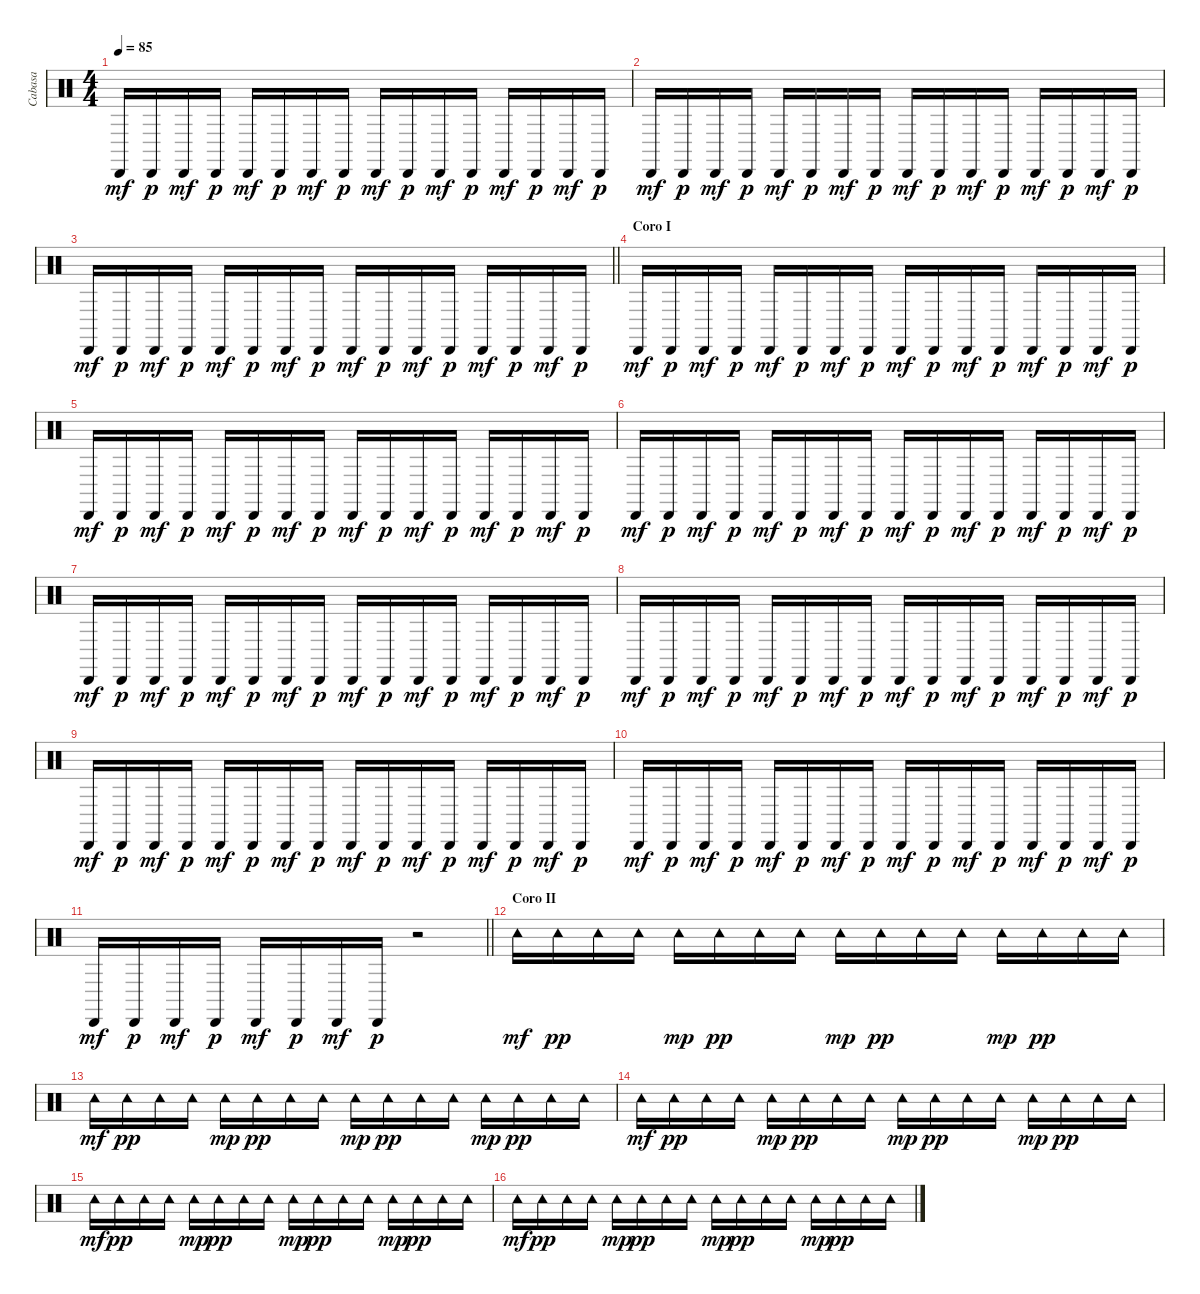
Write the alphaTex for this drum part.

\track ("Cabasa" "Cabasa") {instrument percussion}
\staff {score}
\articulation defaults
\ts (4 4)
\tempo 85
\clef neutral
\ks c "Cabasa (hit)".16{dy mf} "Cabasa (hit)".16{dy p} "Cabasa (hit)".16{dy mf} "Cabasa (hit)".16{dy p} "Cabasa (hit)".16{dy mf} "Cabasa (hit)".16{dy p} "Cabasa (hit)".16{dy mf} "Cabasa (hit)".16{dy p} "Cabasa (hit)".16{dy mf} "Cabasa (hit)".16{dy p} "Cabasa (hit)".16{dy mf} "Cabasa (hit)".16{dy p} "Cabasa (hit)".16{dy mf} "Cabasa (hit)".16{dy p} "Cabasa (hit)".16{dy mf} "Cabasa (hit)".16{dy p}
|
"Cabasa (hit)".16{dy mf} "Cabasa (hit)".16{dy p} "Cabasa (hit)".16{dy mf} "Cabasa (hit)".16{dy p} "Cabasa (hit)".16{dy mf} "Cabasa (hit)".16{dy p} "Cabasa (hit)".16{dy mf} "Cabasa (hit)".16{dy p} "Cabasa (hit)".16{dy mf} "Cabasa (hit)".16{dy p} "Cabasa (hit)".16{dy mf} "Cabasa (hit)".16{dy p} "Cabasa (hit)".16{dy mf} "Cabasa (hit)".16{dy p} "Cabasa (hit)".16{dy mf} "Cabasa (hit)".16{dy p} |
\barLineRight lightlight "Cabasa (hit)".16{dy mf} "Cabasa (hit)".16{dy p} "Cabasa (hit)".16{dy mf} "Cabasa (hit)".16{dy p} "Cabasa (hit)".16{dy mf} "Cabasa (hit)".16{dy p} "Cabasa (hit)".16{dy mf} "Cabasa (hit)".16{dy p} "Cabasa (hit)".16{dy mf} "Cabasa (hit)".16{dy p} "Cabasa (hit)".16{dy mf} "Cabasa (hit)".16{dy p} "Cabasa (hit)".16{dy mf} "Cabasa (hit)".16{dy p} "Cabasa (hit)".16{dy mf} "Cabasa (hit)".16{dy p}
|
\section ("" "Coro I")
"Cabasa (hit)".16{dy mf} "Cabasa (hit)".16{dy p} "Cabasa (hit)".16{dy mf} "Cabasa (hit)".16{dy p} "Cabasa (hit)".16{dy mf} "Cabasa (hit)".16{dy p} "Cabasa (hit)".16{dy mf} "Cabasa (hit)".16{dy p} "Cabasa (hit)".16{dy mf} "Cabasa (hit)".16{dy p} "Cabasa (hit)".16{dy mf} "Cabasa (hit)".16{dy p} "Cabasa (hit)".16{dy mf} "Cabasa (hit)".16{dy p} "Cabasa (hit)".16{dy mf} "Cabasa (hit)".16{dy p} |
"Cabasa (hit)".16{dy mf} "Cabasa (hit)".16{dy p} "Cabasa (hit)".16{dy mf} "Cabasa (hit)".16{dy p} "Cabasa (hit)".16{dy mf} "Cabasa (hit)".16{dy p} "Cabasa (hit)".16{dy mf} "Cabasa (hit)".16{dy p} "Cabasa (hit)".16{dy mf} "Cabasa (hit)".16{dy p} "Cabasa (hit)".16{dy mf} "Cabasa (hit)".16{dy p} "Cabasa (hit)".16{dy mf} "Cabasa (hit)".16{dy p} "Cabasa (hit)".16{dy mf} "Cabasa (hit)".16{dy p} |
"Cabasa (hit)".16{dy mf} "Cabasa (hit)".16{dy p} "Cabasa (hit)".16{dy mf} "Cabasa (hit)".16{dy p} "Cabasa (hit)".16{dy mf} "Cabasa (hit)".16{dy p} "Cabasa (hit)".16{dy mf} "Cabasa (hit)".16{dy p} "Cabasa (hit)".16{dy mf} "Cabasa (hit)".16{dy p} "Cabasa (hit)".16{dy mf} "Cabasa (hit)".16{dy p} "Cabasa (hit)".16{dy mf} "Cabasa (hit)".16{dy p} "Cabasa (hit)".16{dy mf} "Cabasa (hit)".16{dy p} |
"Cabasa (hit)".16{dy mf} "Cabasa (hit)".16{dy p} "Cabasa (hit)".16{dy mf} "Cabasa (hit)".16{dy p} "Cabasa (hit)".16{dy mf} "Cabasa (hit)".16{dy p} "Cabasa (hit)".16{dy mf} "Cabasa (hit)".16{dy p} "Cabasa (hit)".16{dy mf} "Cabasa (hit)".16{dy p} "Cabasa (hit)".16{dy mf} "Cabasa (hit)".16{dy p} "Cabasa (hit)".16{dy mf} "Cabasa (hit)".16{dy p} "Cabasa (hit)".16{dy mf} "Cabasa (hit)".16{dy p} |
"Cabasa (hit)".16{dy mf} "Cabasa (hit)".16{dy p} "Cabasa (hit)".16{dy mf} "Cabasa (hit)".16{dy p} "Cabasa (hit)".16{dy mf} "Cabasa (hit)".16{dy p} "Cabasa (hit)".16{dy mf} "Cabasa (hit)".16{dy p} "Cabasa (hit)".16{dy mf} "Cabasa (hit)".16{dy p} "Cabasa (hit)".16{dy mf} "Cabasa (hit)".16{dy p} "Cabasa (hit)".16{dy mf} "Cabasa (hit)".16{dy p} "Cabasa (hit)".16{dy mf} "Cabasa (hit)".16{dy p} |
"Cabasa (hit)".16{dy mf} "Cabasa (hit)".16{dy p} "Cabasa (hit)".16{dy mf} "Cabasa (hit)".16{dy p} "Cabasa (hit)".16{dy mf} "Cabasa (hit)".16{dy p} "Cabasa (hit)".16{dy mf} "Cabasa (hit)".16{dy p} "Cabasa (hit)".16{dy mf} "Cabasa (hit)".16{dy p} "Cabasa (hit)".16{dy mf} "Cabasa (hit)".16{dy p} "Cabasa (hit)".16{dy mf} "Cabasa (hit)".16{dy p} "Cabasa (hit)".16{dy mf} "Cabasa (hit)".16{dy p} |
"Cabasa (hit)".16{dy mf} "Cabasa (hit)".16{dy p} "Cabasa (hit)".16{dy mf} "Cabasa (hit)".16{dy p} "Cabasa (hit)".16{dy mf} "Cabasa (hit)".16{dy p} "Cabasa (hit)".16{dy mf} "Cabasa (hit)".16{dy p} "Cabasa (hit)".16{dy mf} "Cabasa (hit)".16{dy p} "Cabasa (hit)".16{dy mf} "Cabasa (hit)".16{dy p} "Cabasa (hit)".16{dy mf} "Cabasa (hit)".16{dy p} "Cabasa (hit)".16{dy mf} "Cabasa (hit)".16{dy p} |
\barLineRight lightlight "Cabasa (hit)".16{dy mf} "Cabasa (hit)".16{dy p} "Cabasa (hit)".16{dy mf} "Cabasa (hit)".16{dy p} "Cabasa (hit)".16{dy mf} "Cabasa (hit)".16{dy p} "Cabasa (hit)".16{dy mf} "Cabasa (hit)".16{dy p}
r.2 |
\section ("" "Coro II")
"Tambourine (hit)".16{dy mf} "Tambourine (hit)".16{dy pp} "Tambourine (hit)".16 "Tambourine (hit)".16 "Tambourine (hit)".16{dy mp} "Tambourine (hit)".16{dy pp} "Tambourine (hit)".16 "Tambourine (hit)".16 "Tambourine (hit)".16{dy mp} "Tambourine (hit)".16{dy pp} "Tambourine (hit)".16 "Tambourine (hit)".16 "Tambourine (hit)".16{dy mp} "Tambourine (hit)".16{dy pp} "Tambourine (hit)".16 "Tambourine (hit)".16 |
"Tambourine (hit)".16{dy mf} "Tambourine (hit)".16{dy pp} "Tambourine (hit)".16 "Tambourine (hit)".16 "Tambourine (hit)".16{dy mp} "Tambourine (hit)".16{dy pp} "Tambourine (hit)".16 "Tambourine (hit)".16 "Tambourine (hit)".16{dy mp} "Tambourine (hit)".16{dy pp} "Tambourine (hit)".16 "Tambourine (hit)".16 "Tambourine (hit)".16{dy mp} "Tambourine (hit)".16{dy pp} "Tambourine (hit)".16 "Tambourine (hit)".16 |
"Tambourine (hit)".16{dy mf} "Tambourine (hit)".16{dy pp} "Tambourine (hit)".16 "Tambourine (hit)".16 "Tambourine (hit)".16{dy mp} "Tambourine (hit)".16{dy pp} "Tambourine (hit)".16 "Tambourine (hit)".16 "Tambourine (hit)".16{dy mp} "Tambourine (hit)".16{dy pp} "Tambourine (hit)".16 "Tambourine (hit)".16 "Tambourine (hit)".16{dy mp} "Tambourine (hit)".16{dy pp} "Tambourine (hit)".16 "Tambourine (hit)".16 |
"Tambourine (hit)".16{dy mf} "Tambourine (hit)".16{dy pp} "Tambourine (hit)".16 "Tambourine (hit)".16 "Tambourine (hit)".16{dy mp} "Tambourine (hit)".16{dy pp} "Tambourine (hit)".16 "Tambourine (hit)".16 "Tambourine (hit)".16{dy mp} "Tambourine (hit)".16{dy pp} "Tambourine (hit)".16 "Tambourine (hit)".16 "Tambourine (hit)".16{dy mp} "Tambourine (hit)".16{dy pp} "Tambourine (hit)".16 "Tambourine (hit)".16 |
"Tambourine (hit)".16{dy mf} "Tambourine (hit)".16{dy pp} "Tambourine (hit)".16 "Tambourine (hit)".16 "Tambourine (hit)".16{dy mp} "Tambourine (hit)".16{dy pp} "Tambourine (hit)".16 "Tambourine (hit)".16 "Tambourine (hit)".16{dy mp} "Tambourine (hit)".16{dy pp} "Tambourine (hit)".16 "Tambourine (hit)".16 "Tambourine (hit)".16{dy mp} "Tambourine (hit)".16{dy pp} "Tambourine (hit)".16 "Tambourine (hit)".16
